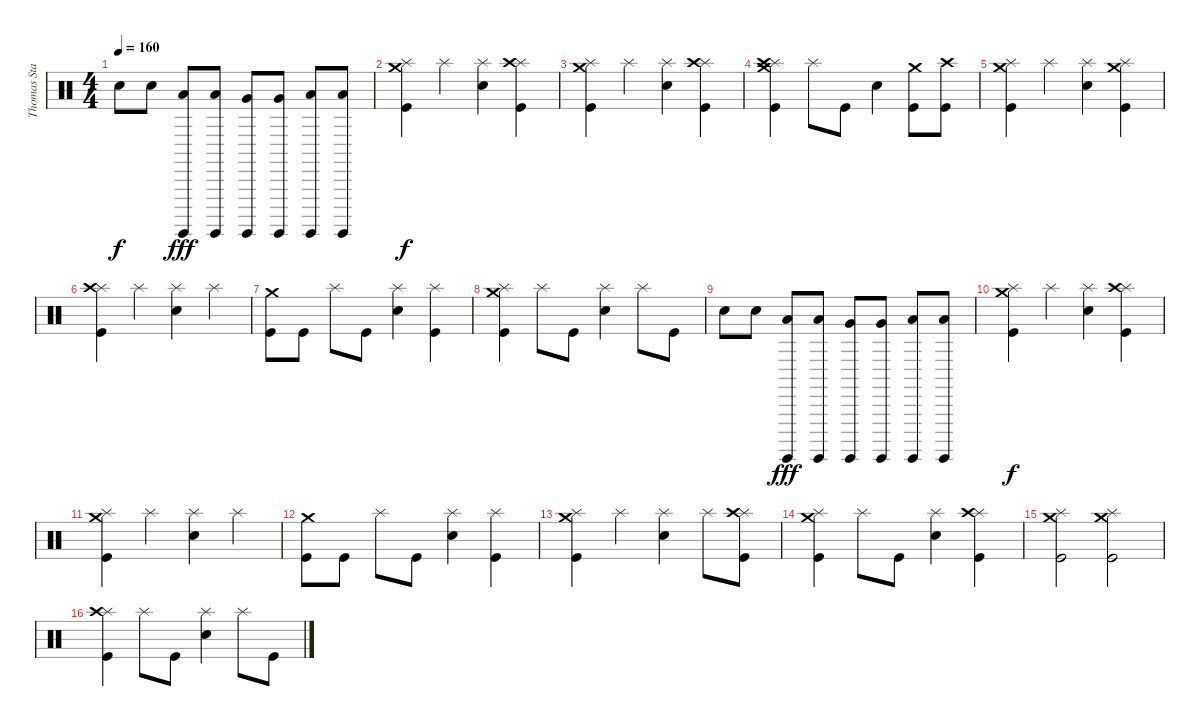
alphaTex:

\track ("Thomas Stauch" "Thomas Sta") {instrument percussion}
\staff {score}
\articulation defaults
\ts (4 4)
\tempo 160
\clef neutral
\ks c "Electric Snare (hit)".8{dy f} "Electric Snare (hit)".8
("Surdo (hit)" "Low Tom (hit)").8{dy fff} ("Surdo (hit)" "Low Tom (hit)").8 ("Surdo (hit)" "Very Low Tom (hit)").8 ("Surdo (hit)" "Very Low Tom (hit)").8 ("Surdo (hit)" "Low Floor Tom (hit)").8 ("Surdo (hit)" "Low Floor Tom (hit)").8 |
("Crash medium (hit)" "Splash (hit)" "Kick (hit)").4{dy f} "Splash (hit)".4 ("Splash (hit)" "Electric Snare (hit)").4 ("Splash (hit)" "Crash high (hit)" "Kick (hit)").4 |
("Crash medium (hit)" "Splash (hit)" "Kick (hit)").4 "Splash (hit)".4 ("Splash (hit)" "Electric Snare (hit)").4 ("Splash (hit)" "Crash high (hit)" "Kick (hit)").4 |
("Crash medium (hit)" "Splash (hit)" "Crash high (hit)" "Kick (hit)").4 "Splash (hit)".8 "Kick (hit)".8 "Electric Snare (hit)".4 ("Crash medium (hit)" "Kick (hit)").8 ("Crash high (hit)" "Kick (hit)").8 |
("Crash medium (hit)" "Splash (hit)" "Kick (hit)").4 "Splash (hit)".4 ("Splash (hit)" "Electric Snare (hit)").4 ("Crash medium (hit)" "Splash (hit)" "Kick (hit)").4 |
("Splash (hit)" "Crash high (hit)" "Kick (hit)").4 "Splash (hit)".4 ("Splash (hit)" "Electric Snare (hit)").4 "Splash (hit)".4 |
("Crash medium (hit)" "Kick (hit)").8 "Kick (hit)".8 "Splash (hit)".8 "Kick (hit)".8 ("Splash (hit)" "Electric Snare (hit)").4 ("Splash (hit)" "Kick (hit)").4 |
("Crash medium (hit)" "Splash (hit)" "Kick (hit)").4 "Splash (hit)".8 "Kick (hit)".8 ("Splash (hit)" "Electric Snare (hit)").4 "Splash (hit)".8 "Kick (hit)".8 |
"Electric Snare (hit)".8 "Electric Snare (hit)".8 ("Surdo (hit)" "Low Tom (hit)").8{dy fff} ("Surdo (hit)" "Low Tom (hit)").8 ("Surdo (hit)" "Very Low Tom (hit)").8 ("Surdo (hit)" "Very Low Tom (hit)").8 ("Surdo (hit)" "Low Floor Tom (hit)").8 ("Surdo (hit)" "Low Floor Tom (hit)").8 |
("Crash medium (hit)" "Splash (hit)" "Kick (hit)").4{dy f} "Splash (hit)".4 ("Splash (hit)" "Electric Snare (hit)").4 ("Splash (hit)" "Crash high (hit)" "Kick (hit)").4 |
("Crash medium (hit)" "Splash (hit)" "Kick (hit)").4 "Splash (hit)".4 ("Splash (hit)" "Electric Snare (hit)").4 "Splash (hit)".4 |
("Crash medium (hit)" "Kick (hit)").8 "Kick (hit)".8 "Splash (hit)".8 "Kick (hit)".8 ("Splash (hit)" "Electric Snare (hit)").4 ("Splash (hit)" "Kick (hit)").4 |
("Crash medium (hit)" "Splash (hit)" "Kick (hit)").4 "Splash (hit)".4 ("Splash (hit)" "Electric Snare (hit)").4 "Splash (hit)".8 ("Splash (hit)" "Crash high (hit)" "Kick (hit)").8 |
("Crash medium (hit)" "Splash (hit)" "Kick (hit)").4 "Splash (hit)".8 "Kick (hit)".8 ("Splash (hit)" "Electric Snare (hit)").4 ("Splash (hit)" "Crash high (hit)" "Kick (hit)").4 |
("Crash medium (hit)" "Splash (hit)" "Kick (hit)").2 ("Crash medium (hit)" "Splash (hit)" "Kick (hit)").2 |
("Splash (hit)" "Crash high (hit)" "Kick (hit)").4 "Splash (hit)".8 "Kick (hit)".8 ("Splash (hit)" "Electric Snare (hit)").4 "Splash (hit)".8 "Kick (hit)".8
